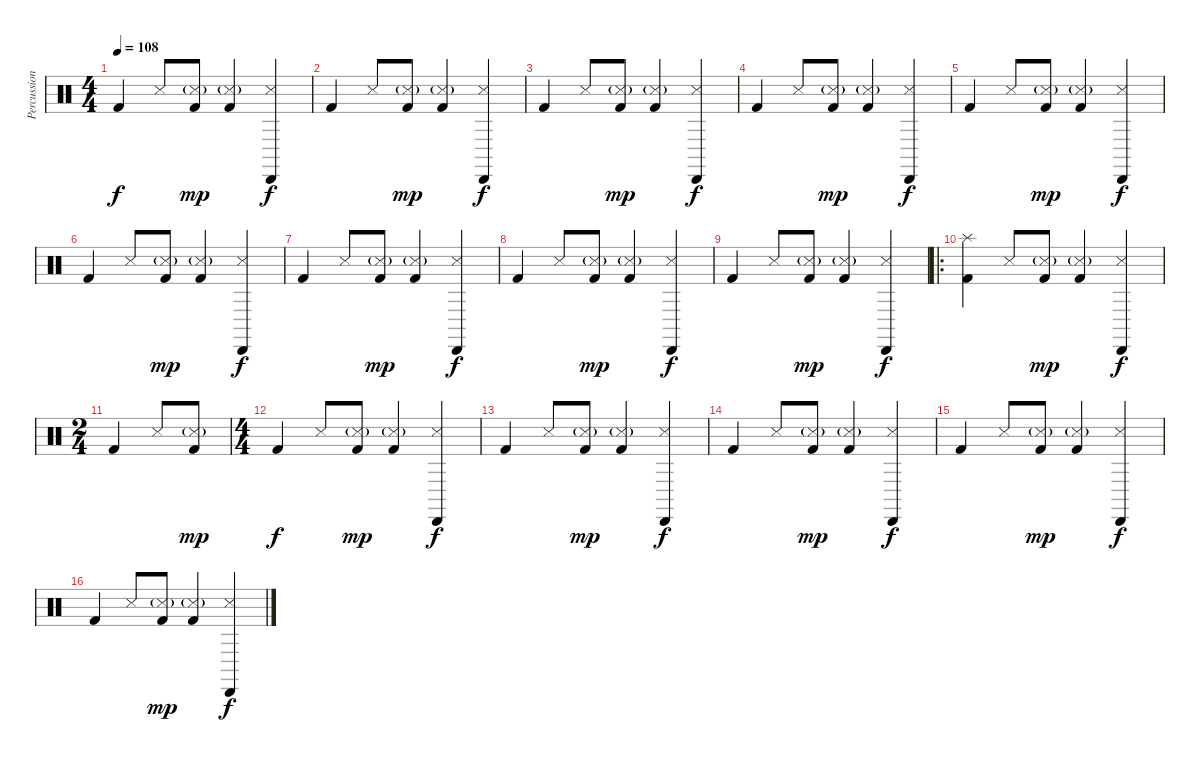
\track ("Percussions" "Percussion") {instrument percussion}
\staff {score}
\articulation defaults
\ts (4 4)
\tempo 108
\clef neutral
\ks c "Kick (hit) 2".4{dy f} "Metronome (hit)".8
("Metronome (hit)"{g} "Kick (hit) 2").8{dy mp} ("Snare (side stick) 3"{g} "Kick (hit) 2").4 ("Cabasa (hit)" "Metronome (hit)").4{dy f} |
"Kick (hit) 2".4 "Metronome (hit)".8 ("Metronome (hit)"{g} "Kick (hit) 2").8{dy mp} ("Snare (side stick) 3"{g} "Kick (hit) 2").4 ("Cabasa (hit)" "Metronome (hit)").4{dy f} |
"Kick (hit) 2".4 "Metronome (hit)".8 ("Metronome (hit)"{g} "Kick (hit) 2").8{dy mp} ("Snare (side stick) 3"{g} "Kick (hit) 2").4 ("Cabasa (hit)" "Metronome (hit)").4{dy f} |
"Kick (hit) 2".4 "Metronome (hit)".8 ("Metronome (hit)"{g} "Kick (hit) 2").8{dy mp} ("Snare (side stick) 3"{g} "Kick (hit) 2").4 ("Cabasa (hit)" "Metronome (hit)").4{dy f} |
"Kick (hit) 2".4 "Metronome (hit)".8 ("Metronome (hit)"{g} "Kick (hit) 2").8{dy mp} ("Snare (side stick) 3"{g} "Kick (hit) 2").4 ("Cabasa (hit)" "Metronome (hit)").4{dy f} |
"Kick (hit) 2".4 "Metronome (hit)".8 ("Metronome (hit)"{g} "Kick (hit) 2").8{dy mp} ("Snare (side stick) 3"{g} "Kick (hit) 2").4 ("Cabasa (hit)" "Metronome (hit)").4{dy f} |
"Kick (hit) 2".4 "Metronome (hit)".8 ("Metronome (hit)"{g} "Kick (hit) 2").8{dy mp} ("Snare (side stick) 3"{g} "Kick (hit) 2").4 ("Cabasa (hit)" "Metronome (hit)").4{dy f} |
"Kick (hit) 2".4 "Metronome (hit)".8 ("Metronome (hit)"{g} "Kick (hit) 2").8{dy mp} ("Snare (side stick) 3"{g} "Kick (hit) 2").4 ("Cabasa (hit)" "Metronome (hit)").4{dy f} |
"Kick (hit) 2".4 "Metronome (hit)".8 ("Metronome (hit)"{g} "Kick (hit) 2").8{dy mp} ("Snare (side stick) 3"{g} "Kick (hit) 2").4 ("Cabasa (hit)" "Metronome (hit)").4{dy f} |
\ro
("Kick (hit) 2" "Splash (hit)").4 "Metronome (hit)".8 ("Metronome (hit)"{g} "Kick (hit) 2").8{dy mp} ("Snare (side stick) 3"{g} "Kick (hit) 2").4 ("Cabasa (hit)" "Metronome (hit)").4{dy f} |
\ts (2 4)
"Kick (hit) 2".4 "Metronome (hit)".8 ("Metronome (hit)"{g} "Kick (hit) 2").8{dy mp} |
\ts (4 4)
"Kick (hit) 2".4{dy f} "Metronome (hit)".8 ("Metronome (hit)"{g} "Kick (hit) 2").8{dy mp} ("Snare (side stick) 3"{g} "Kick (hit) 2").4 ("Cabasa (hit)" "Metronome (hit)").4{dy f} |
"Kick (hit) 2".4 "Metronome (hit)".8 ("Metronome (hit)"{g} "Kick (hit) 2").8{dy mp} ("Snare (side stick) 3"{g} "Kick (hit) 2").4 ("Cabasa (hit)" "Metronome (hit)").4{dy f} |
"Kick (hit) 2".4 "Metronome (hit)".8 ("Metronome (hit)"{g} "Kick (hit) 2").8{dy mp} ("Snare (side stick) 3"{g} "Kick (hit) 2").4 ("Cabasa (hit)" "Metronome (hit)").4{dy f} |
"Kick (hit) 2".4 "Metronome (hit)".8 ("Metronome (hit)"{g} "Kick (hit) 2").8{dy mp} ("Snare (side stick) 3"{g} "Kick (hit) 2").4 ("Cabasa (hit)" "Metronome (hit)").4{dy f} |
"Kick (hit) 2".4 "Metronome (hit)".8 ("Metronome (hit)"{g} "Kick (hit) 2").8{dy mp} ("Snare (side stick) 3"{g} "Kick (hit) 2").4 ("Cabasa (hit)" "Metronome (hit)").4{dy f}
